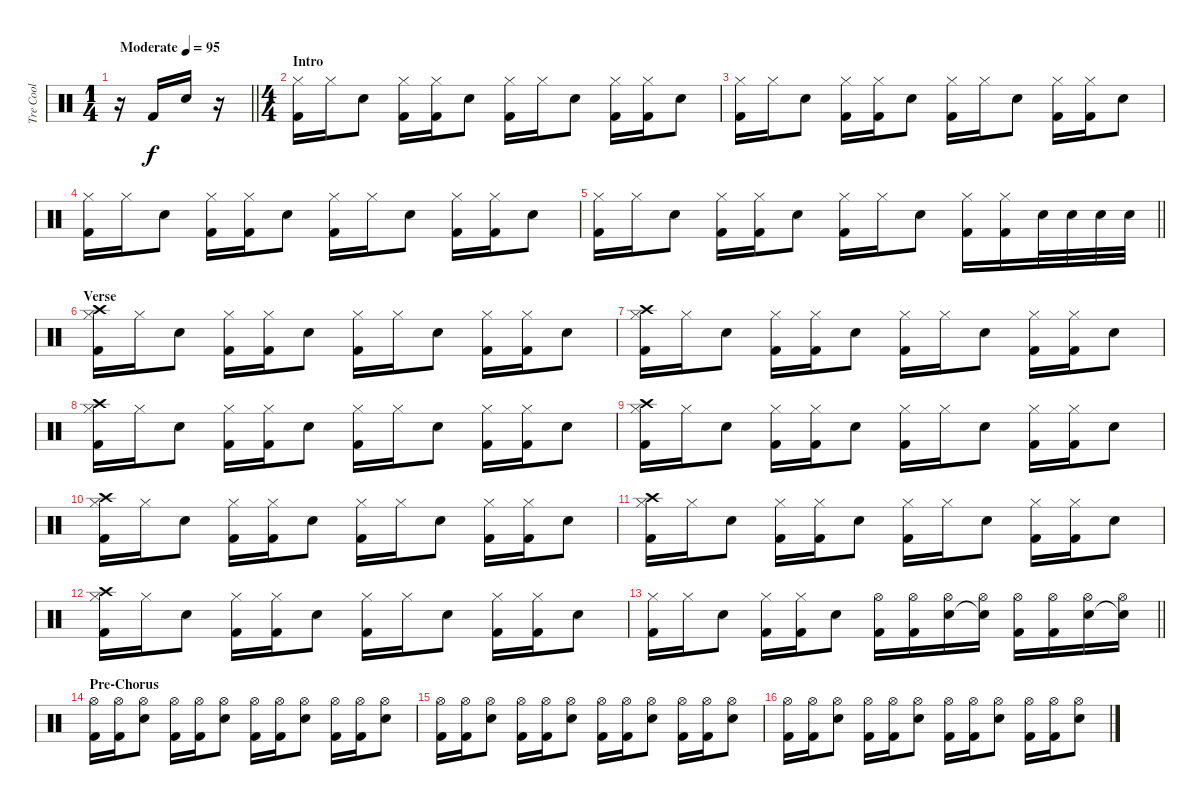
\track ("Tre Cool" "Tre Cool") {instrument percussion}
\staff {score}
\articulation defaults
\ts (1 4)
\tempo (95 "Moderate")
\clef neutral
\barLineRight lightlight
\ks c
r.16{dy f} "Kick (hit) 2".16 "Electric Snare (hit)".16 r.16 |
\ts (4 4)
\section ("" "Intro")
("Hi-Hat (closed)" "Kick (hit) 2").16 "Hi-Hat (closed)".16 "Electric Snare (hit)".8 ("Hi-Hat (closed)" "Kick (hit) 2").16 ("Hi-Hat (closed)" "Kick (hit) 2").16 "Electric Snare (hit)".8 ("Hi-Hat (closed)" "Kick (hit) 2").16 "Hi-Hat (closed)".16 "Electric Snare (hit)".8 ("Hi-Hat (closed)" "Kick (hit) 2").16 ("Hi-Hat (closed)" "Kick (hit) 2").16 "Electric Snare (hit)".8 |
("Hi-Hat (closed)" "Kick (hit) 2").16 "Hi-Hat (closed)".16 "Electric Snare (hit)".8 ("Hi-Hat (closed)" "Kick (hit) 2").16 ("Hi-Hat (closed)" "Kick (hit) 2").16 "Electric Snare (hit)".8 ("Hi-Hat (closed)" "Kick (hit) 2").16 "Hi-Hat (closed)".16 "Electric Snare (hit)".8 ("Hi-Hat (closed)" "Kick (hit) 2").16 ("Hi-Hat (closed)" "Kick (hit) 2").16 "Electric Snare (hit)".8 |
("Hi-Hat (closed)" "Kick (hit) 2").16 "Hi-Hat (closed)".16 "Electric Snare (hit)".8 ("Hi-Hat (closed)" "Kick (hit) 2").16 ("Hi-Hat (closed)" "Kick (hit) 2").16 "Electric Snare (hit)".8 ("Hi-Hat (closed)" "Kick (hit) 2").16 "Hi-Hat (closed)".16 "Electric Snare (hit)".8 ("Hi-Hat (closed)" "Kick (hit) 2").16 ("Hi-Hat (closed)" "Kick (hit) 2").16 "Electric Snare (hit)".8 |
\barLineRight lightlight
("Hi-Hat (closed)" "Kick (hit) 2").16 "Hi-Hat (closed)".16 "Electric Snare (hit)".8 ("Hi-Hat (closed)" "Kick (hit) 2").16 ("Hi-Hat (closed)" "Kick (hit) 2").16 "Electric Snare (hit)".8 ("Hi-Hat (closed)" "Kick (hit) 2").16 "Hi-Hat (closed)".16 "Electric Snare (hit)".8 ("Hi-Hat (closed)" "Kick (hit) 2").16 ("Hi-Hat (closed)" "Kick (hit) 2").16 "Electric Snare (hit)".32 "Electric Snare (hit)".32 "Electric Snare (hit)".32 "Electric Snare (hit)".32 |
\section ("" "Verse")
("Crash high (hit)" "Hi-Hat (closed)" "Kick (hit) 2").16 "Hi-Hat (closed)".16 "Electric Snare (hit)".8 ("Hi-Hat (closed)" "Kick (hit) 2").16 ("Hi-Hat (closed)" "Kick (hit) 2").16 "Electric Snare (hit)".8 ("Hi-Hat (closed)" "Kick (hit) 2").16 "Hi-Hat (closed)".16 "Electric Snare (hit)".8 ("Hi-Hat (closed)" "Kick (hit) 2").16 ("Hi-Hat (closed)" "Kick (hit) 2").16 "Electric Snare (hit)".8 |
("Crash high (hit)" "Hi-Hat (closed)" "Kick (hit) 2").16 "Hi-Hat (closed)".16 "Electric Snare (hit)".8 ("Hi-Hat (closed)" "Kick (hit) 2").16 ("Hi-Hat (closed)" "Kick (hit) 2").16 "Electric Snare (hit)".8 ("Hi-Hat (closed)" "Kick (hit) 2").16 "Hi-Hat (closed)".16 "Electric Snare (hit)".8 ("Hi-Hat (closed)" "Kick (hit) 2").16 ("Hi-Hat (closed)" "Kick (hit) 2").16 "Electric Snare (hit)".8 |
("Crash high (hit)" "Hi-Hat (closed)" "Kick (hit) 2").16 "Hi-Hat (closed)".16 "Electric Snare (hit)".8 ("Hi-Hat (closed)" "Kick (hit) 2").16 ("Hi-Hat (closed)" "Kick (hit) 2").16 "Electric Snare (hit)".8 ("Hi-Hat (closed)" "Kick (hit) 2").16 "Hi-Hat (closed)".16 "Electric Snare (hit)".8 ("Hi-Hat (closed)" "Kick (hit) 2").16 ("Hi-Hat (closed)" "Kick (hit) 2").16 "Electric Snare (hit)".8 |
("Crash high (hit)" "Hi-Hat (closed)" "Kick (hit) 2").16 "Hi-Hat (closed)".16 "Electric Snare (hit)".8 ("Hi-Hat (closed)" "Kick (hit) 2").16 ("Hi-Hat (closed)" "Kick (hit) 2").16 "Electric Snare (hit)".8 ("Hi-Hat (closed)" "Kick (hit) 2").16 "Hi-Hat (closed)".16 "Electric Snare (hit)".8 ("Hi-Hat (closed)" "Kick (hit) 2").16 ("Hi-Hat (closed)" "Kick (hit) 2").16 "Electric Snare (hit)".8 |
("Crash high (hit)" "Hi-Hat (closed)" "Kick (hit) 2").16 "Hi-Hat (closed)".16 "Electric Snare (hit)".8 ("Hi-Hat (closed)" "Kick (hit) 2").16 ("Hi-Hat (closed)" "Kick (hit) 2").16 "Electric Snare (hit)".8 ("Hi-Hat (closed)" "Kick (hit) 2").16 "Hi-Hat (closed)".16 "Electric Snare (hit)".8 ("Hi-Hat (closed)" "Kick (hit) 2").16 ("Hi-Hat (closed)" "Kick (hit) 2").16 "Electric Snare (hit)".8 |
("Crash high (hit)" "Hi-Hat (closed)" "Kick (hit) 2").16 "Hi-Hat (closed)".16 "Electric Snare (hit)".8 ("Hi-Hat (closed)" "Kick (hit) 2").16 ("Hi-Hat (closed)" "Kick (hit) 2").16 "Electric Snare (hit)".8 ("Hi-Hat (closed)" "Kick (hit) 2").16 "Hi-Hat (closed)".16 "Electric Snare (hit)".8 ("Hi-Hat (closed)" "Kick (hit) 2").16 ("Hi-Hat (closed)" "Kick (hit) 2").16 "Electric Snare (hit)".8 |
("Crash high (hit)" "Hi-Hat (closed)" "Kick (hit) 2").16 "Hi-Hat (closed)".16 "Electric Snare (hit)".8 ("Hi-Hat (closed)" "Kick (hit) 2").16 ("Hi-Hat (closed)" "Kick (hit) 2").16 "Electric Snare (hit)".8 ("Hi-Hat (closed)" "Kick (hit) 2").16 "Hi-Hat (closed)".16 "Electric Snare (hit)".8 ("Hi-Hat (closed)" "Kick (hit) 2").16 ("Hi-Hat (closed)" "Kick (hit) 2").16 "Electric Snare (hit)".8 |
\barLineRight lightlight
("Hi-Hat (closed)" "Kick (hit) 2").16 "Hi-Hat (closed)".16 "Electric Snare (hit)".8 ("Hi-Hat (closed)" "Kick (hit) 2").16 ("Hi-Hat (closed)" "Kick (hit) 2").16 "Electric Snare (hit)".8 ("Hi-Hat (open)" "Kick (hit) 2").16 ("Hi-Hat (open)" "Kick (hit) 2").16 ("Electric Snare (hit)" "Hi-Hat (open)").16 ("Electric Snare (hit)"{t} "Hi-Hat (open)").16 ("Hi-Hat (open)" "Kick (hit) 2").16 ("Hi-Hat (open)" "Kick (hit) 2").16 ("Electric Snare (hit)" "Hi-Hat (open)").16 ("Snare (hit)"{t} "Hi-Hat (open)").16 |
\section ("" "Pre-Chorus")
("Hi-Hat (open)" "Kick (hit) 2").16 ("Hi-Hat (open)" "Kick (hit) 2").16 ("Electric Snare (hit)" "Hi-Hat (open)").8 ("Hi-Hat (open)" "Kick (hit) 2").16 ("Hi-Hat (open)" "Kick (hit) 2").16 ("Electric Snare (hit)" "Hi-Hat (open)").8 ("Hi-Hat (open)" "Kick (hit) 2").16 ("Hi-Hat (open)" "Kick (hit) 2").16 ("Electric Snare (hit)" "Hi-Hat (open)").8 ("Hi-Hat (open)" "Kick (hit) 2").16 ("Hi-Hat (open)" "Kick (hit) 2").16 ("Electric Snare (hit)" "Hi-Hat (open)").8 |
("Hi-Hat (open)" "Kick (hit) 2").16 ("Hi-Hat (open)" "Kick (hit) 2").16 ("Electric Snare (hit)" "Hi-Hat (open)").8 ("Hi-Hat (open)" "Kick (hit) 2").16 ("Hi-Hat (open)" "Kick (hit) 2").16 ("Electric Snare (hit)" "Hi-Hat (open)").8 ("Hi-Hat (open)" "Kick (hit) 2").16 ("Hi-Hat (open)" "Kick (hit) 2").16 ("Electric Snare (hit)" "Hi-Hat (open)").8 ("Hi-Hat (open)" "Kick (hit) 2").16 ("Hi-Hat (open)" "Kick (hit) 2").16 ("Electric Snare (hit)" "Hi-Hat (open)").8 |
("Hi-Hat (open)" "Kick (hit) 2").16 ("Hi-Hat (open)" "Kick (hit) 2").16 ("Electric Snare (hit)" "Hi-Hat (open)").8 ("Hi-Hat (open)" "Kick (hit) 2").16 ("Hi-Hat (open)" "Kick (hit) 2").16 ("Electric Snare (hit)" "Hi-Hat (open)").8 ("Hi-Hat (open)" "Kick (hit) 2").16 ("Hi-Hat (open)" "Kick (hit) 2").16 ("Electric Snare (hit)" "Hi-Hat (open)").8 ("Hi-Hat (open)" "Kick (hit) 2").16 ("Hi-Hat (open)" "Kick (hit) 2").16 ("Electric Snare (hit)" "Hi-Hat (open)").8
